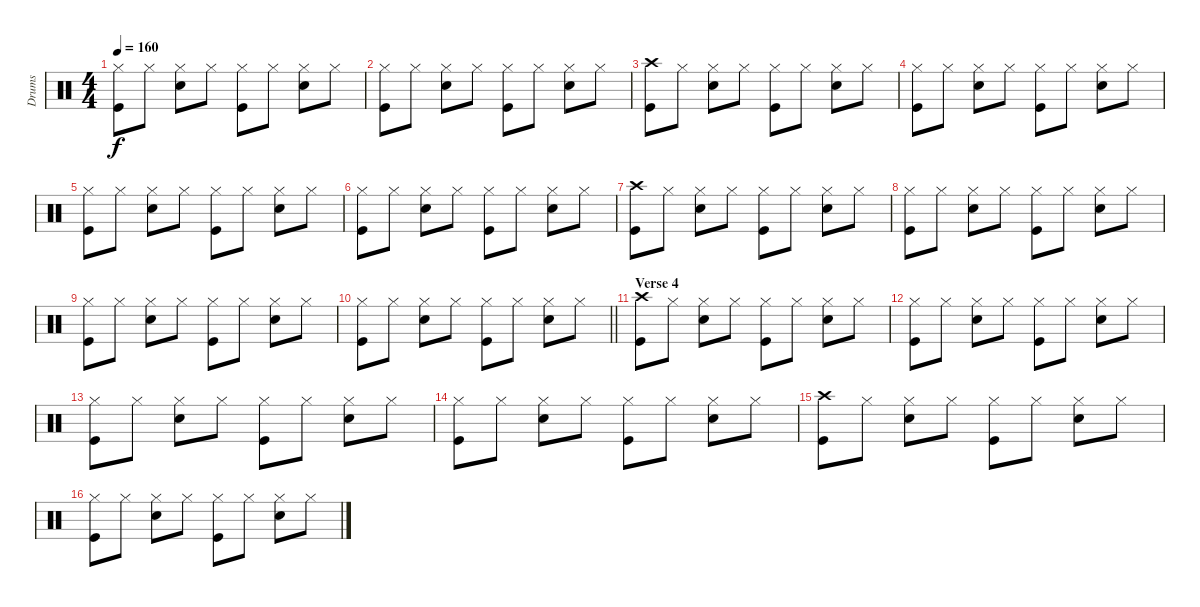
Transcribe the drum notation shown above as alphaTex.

\track ("Drums" "Drums") {instrument percussion}
\staff {score}
\articulation defaults
\ts (4 4)
\tempo 160
\clef neutral
\ks c
("Kick (hit)" "Hi-Hat (closed)").8{dy f} "Hi-Hat (closed)".8 ("Hi-Hat (closed)" "Snare (hit) 2").8 "Hi-Hat (closed)".8 ("Kick (hit)" "Hi-Hat (closed)").8 "Hi-Hat (closed)".8 ("Hi-Hat (closed)" "Snare (hit) 2").8 "Hi-Hat (closed)".8 |
("Kick (hit)" "Hi-Hat (closed)").8 "Hi-Hat (closed)".8 ("Hi-Hat (closed)" "Snare (hit) 2").8 "Hi-Hat (closed)".8 ("Kick (hit)" "Hi-Hat (closed)").8 "Hi-Hat (closed)".8 ("Hi-Hat (closed)" "Snare (hit) 2").8 "Hi-Hat (closed)".8 |
("Kick (hit)" "Crash high (hit)").8 "Hi-Hat (closed)".8 ("Hi-Hat (closed)" "Snare (hit) 2").8 "Hi-Hat (closed)".8 ("Kick (hit)" "Hi-Hat (closed)").8 "Hi-Hat (closed)".8 ("Hi-Hat (closed)" "Snare (hit) 2").8 "Hi-Hat (closed)".8 |
("Kick (hit)" "Hi-Hat (closed)").8 "Hi-Hat (closed)".8 ("Hi-Hat (closed)" "Snare (hit) 2").8 "Hi-Hat (closed)".8 ("Kick (hit)" "Hi-Hat (closed)").8 "Hi-Hat (closed)".8 ("Hi-Hat (closed)" "Snare (hit) 2").8 "Hi-Hat (closed)".8 |
("Kick (hit)" "Hi-Hat (closed)").8 "Hi-Hat (closed)".8 ("Hi-Hat (closed)" "Snare (hit) 2").8 "Hi-Hat (closed)".8 ("Kick (hit)" "Hi-Hat (closed)").8 "Hi-Hat (closed)".8 ("Hi-Hat (closed)" "Snare (hit) 2").8 "Hi-Hat (closed)".8 |
("Kick (hit)" "Hi-Hat (closed)").8 "Hi-Hat (closed)".8 ("Hi-Hat (closed)" "Snare (hit) 2").8 "Hi-Hat (closed)".8 ("Kick (hit)" "Hi-Hat (closed)").8 "Hi-Hat (closed)".8 ("Hi-Hat (closed)" "Snare (hit) 2").8 "Hi-Hat (closed)".8 |
("Kick (hit)" "Crash high (hit)").8 "Hi-Hat (closed)".8 ("Hi-Hat (closed)" "Snare (hit) 2").8 "Hi-Hat (closed)".8 ("Kick (hit)" "Hi-Hat (closed)").8 "Hi-Hat (closed)".8 ("Hi-Hat (closed)" "Snare (hit) 2").8 "Hi-Hat (closed)".8 |
("Kick (hit)" "Hi-Hat (closed)").8 "Hi-Hat (closed)".8 ("Hi-Hat (closed)" "Snare (hit) 2").8 "Hi-Hat (closed)".8 ("Kick (hit)" "Hi-Hat (closed)").8 "Hi-Hat (closed)".8 ("Hi-Hat (closed)" "Snare (hit) 2").8 "Hi-Hat (closed)".8 |
("Kick (hit)" "Hi-Hat (closed)").8 "Hi-Hat (closed)".8 ("Hi-Hat (closed)" "Snare (hit) 2").8 "Hi-Hat (closed)".8 ("Kick (hit)" "Hi-Hat (closed)").8 "Hi-Hat (closed)".8 ("Hi-Hat (closed)" "Snare (hit) 2").8 "Hi-Hat (closed)".8 |
\barLineRight lightlight
("Kick (hit)" "Hi-Hat (closed)").8 "Hi-Hat (closed)".8 ("Hi-Hat (closed)" "Snare (hit) 2").8 "Hi-Hat (closed)".8 ("Kick (hit)" "Hi-Hat (closed)").8 "Hi-Hat (closed)".8 ("Hi-Hat (closed)" "Snare (hit) 2").8 "Hi-Hat (closed)".8 |
\section ("" "Verse 4")
("Kick (hit)" "Crash high (hit)").8 "Hi-Hat (closed)".8 ("Hi-Hat (closed)" "Snare (hit) 2").8 "Hi-Hat (closed)".8 ("Kick (hit)" "Hi-Hat (closed)").8 "Hi-Hat (closed)".8 ("Hi-Hat (closed)" "Snare (hit) 2").8 "Hi-Hat (closed)".8 |
("Kick (hit)" "Hi-Hat (closed)").8 "Hi-Hat (closed)".8 ("Hi-Hat (closed)" "Snare (hit) 2").8 "Hi-Hat (closed)".8 ("Kick (hit)" "Hi-Hat (closed)").8 "Hi-Hat (closed)".8 ("Hi-Hat (closed)" "Snare (hit) 2").8 "Hi-Hat (closed)".8 |
("Kick (hit)" "Hi-Hat (closed)").8 "Hi-Hat (closed)".8 ("Hi-Hat (closed)" "Snare (hit) 2").8 "Hi-Hat (closed)".8 ("Kick (hit)" "Hi-Hat (closed)").8 "Hi-Hat (closed)".8 ("Hi-Hat (closed)" "Snare (hit) 2").8 "Hi-Hat (closed)".8 |
("Kick (hit)" "Hi-Hat (closed)").8 "Hi-Hat (closed)".8 ("Hi-Hat (closed)" "Snare (hit) 2").8 "Hi-Hat (closed)".8 ("Kick (hit)" "Hi-Hat (closed)").8 "Hi-Hat (closed)".8 ("Hi-Hat (closed)" "Snare (hit) 2").8 "Hi-Hat (closed)".8 |
("Kick (hit)" "Crash high (hit)").8 "Hi-Hat (closed)".8 ("Hi-Hat (closed)" "Snare (hit) 2").8 "Hi-Hat (closed)".8 ("Kick (hit)" "Hi-Hat (closed)").8 "Hi-Hat (closed)".8 ("Hi-Hat (closed)" "Snare (hit) 2").8 "Hi-Hat (closed)".8 |
("Kick (hit)" "Hi-Hat (closed)").8 "Hi-Hat (closed)".8 ("Hi-Hat (closed)" "Snare (hit) 2").8 "Hi-Hat (closed)".8 ("Kick (hit)" "Hi-Hat (closed)").8 "Hi-Hat (closed)".8 ("Hi-Hat (closed)" "Snare (hit) 2").8 "Hi-Hat (closed)".8
